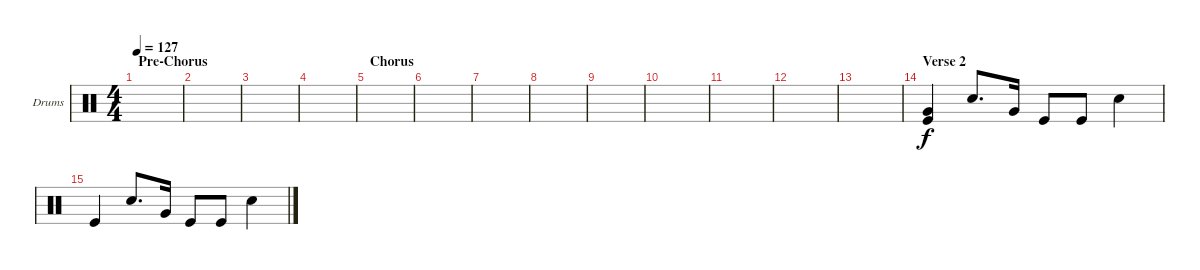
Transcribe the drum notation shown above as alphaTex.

\defaultSystemsLayout 4
\bracketExtendMode groupsimilarinstruments
\firstSystemTrackNameOrientation horizontal
\otherSystemsTrackNameOrientation horizontal
\track ("Drums 1" "Drums") {instrument percussion}
\staff {score}
\articulation defaults
\ts (4 4)
\section ("" "Pre-Chorus")
\tempo 127
\clef neutral
\ks c
|
|
|
|
\section ("" "Chorus")
|
|
|
|
|
|
|
|
|
\section ("" "Verse 2")
("Kick (hit)" "Very Low Tom (hit)").4 "Snare (hit) 2".8{d} "Very Low Tom (hit)".16 "Kick (hit)".8 "Kick (hit)".8 "Snare (hit) 2".4 |
"Kick (hit)".4 "Snare (hit) 2".8{d} "Very Low Tom (hit)".16 "Kick (hit)".8 "Kick (hit)".8 "Snare (hit) 2".4
